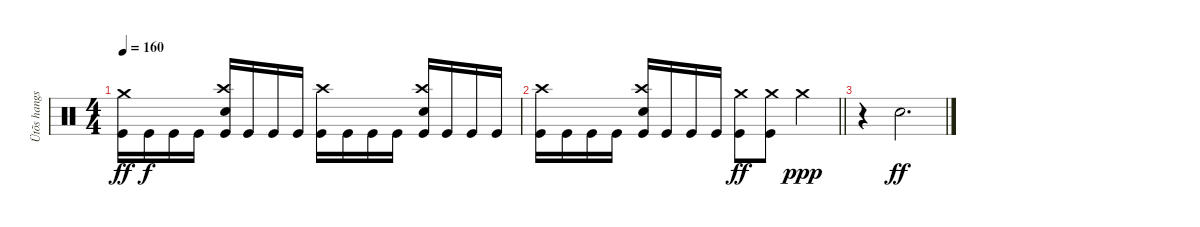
\track ("Ütõs hangszer" "Ütõs hangs") {instrument percussion}
\staff {score}
\articulation defaults
\ts (4 4)
\tempo 160
\clef neutral
\ks c
("Crash medium (hit)" "Kick (hit)").16{dy ff} "Kick (hit)".16{dy f} "Kick (hit)".16 "Kick (hit)".16 ("Crash high (hit)" "Electric Snare (hit)" "Kick (hit)").16 "Kick (hit)".16 "Kick (hit)".16 "Kick (hit)".16 ("Crash high (hit)" "Kick (hit)").16 "Kick (hit)".16 "Kick (hit)".16 "Kick (hit)".16 ("Crash high (hit)" "Electric Snare (hit)" "Kick (hit)").16 "Kick (hit)".16 "Kick (hit)".16 "Kick (hit)".16 |
\barLineRight lightlight
("Crash high (hit)" "Kick (hit)").16 "Kick (hit)".16 "Kick (hit)".16 "Kick (hit)".16 ("Crash high (hit)" "Electric Snare (hit)" "Kick (hit)").16 "Kick (hit)".16 "Kick (hit)".16 "Kick (hit)".16 ("Crash medium (hit)" "Kick (hit)").8{dy ff} ("Crash medium (hit)" "Kick (hit)").8 "Crash medium (hit)".4{dy ppp} |
r.4 "Electric Snare (hit)".2{d dy ff}
